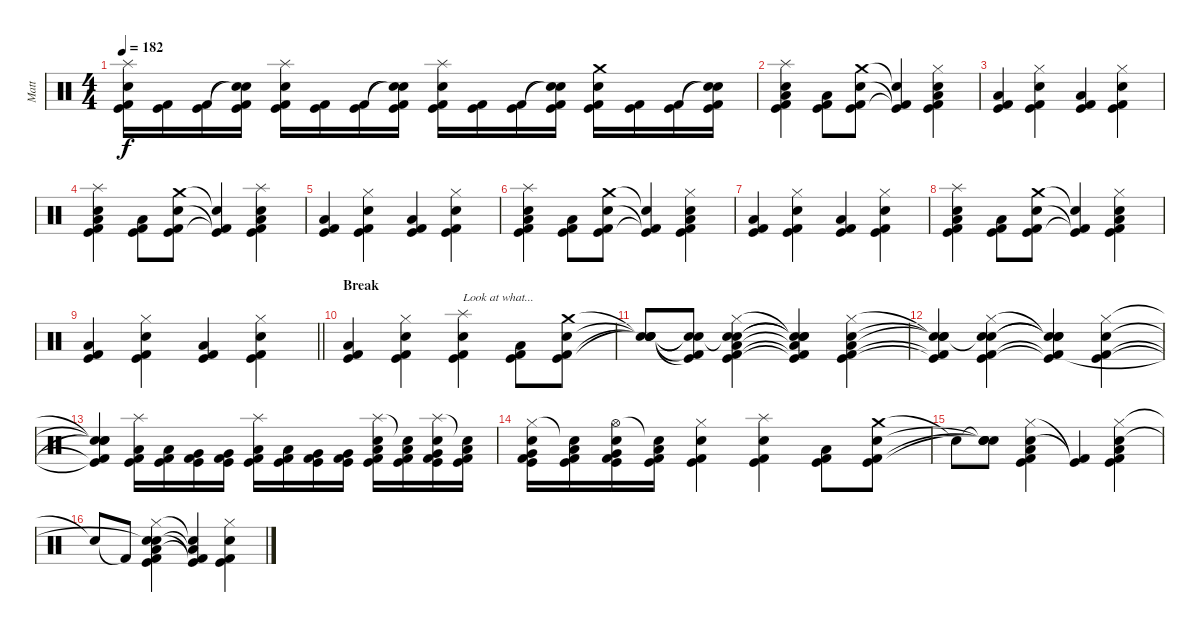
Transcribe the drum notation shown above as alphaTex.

\track ("Matt" "Matt") {instrument percussion}
\staff {score}
\articulation defaults
\ts (4 4)
\tempo 182
\clef neutral
\ks c
("Splash (hit)" "Electric Snare (hit)" "Kick (hit)" "Kick (hit) 2").16{dy f} ("Kick (hit)" "Kick (hit) 2").16 ("Kick (hit)" "Kick (hit) 2").16 ("Snare (hit)"{t} "Snare (hit)"{t} "Kick (hit)" "Kick (hit) 2").16 ("Splash (hit)" "Electric Snare (hit)" "Kick (hit)" "Kick (hit) 2").16 ("Kick (hit)" "Kick (hit) 2").16 ("Kick (hit)" "Kick (hit) 2").16 ("Snare (hit)"{t} "Snare (hit)"{t} "Kick (hit)" "Kick (hit) 2").16 ("Splash (hit)" "Electric Snare (hit)" "Kick (hit)" "Kick (hit) 2").16 ("Kick (hit)" "Kick (hit) 2").16 ("Kick (hit)" "Kick (hit) 2").16 ("Snare (hit)"{t} "Snare (hit)"{t} "Kick (hit)" "Kick (hit) 2").16 ("Crash medium (hit)" "Electric Snare (hit)" "Kick (hit)" "Kick (hit) 2").16 ("Kick (hit)" "Kick (hit) 2").16 ("Kick (hit)" "Kick (hit) 2").16 ("Snare (hit)"{t} "Snare (hit)"{t} "Kick (hit)" "Kick (hit) 2").16 |
("Splash (hit)" "Electric Snare (hit)" "Low Floor Tom (hit)" "Kick (hit)" "Kick (hit) 2").4 ("Low Floor Tom (hit)" "Kick (hit)" "Kick (hit) 2").8 ("Crash medium (hit)" "Electric Snare (hit)" "Kick (hit)" "Kick (hit) 2").8 ("Electric Snare (hit)"{t} "Kick (hit)"{t} "Kick (hit) 2"{t}).4 ("Hi-Hat (closed)" "Electric Snare (hit)" "Low Floor Tom (hit)" "Kick (hit)" "Kick (hit) 2").4 |
("Low Floor Tom (hit)" "Kick (hit)" "Kick (hit) 2").4 ("Hi-Hat (closed)" "Electric Snare (hit)" "Kick (hit)" "Kick (hit) 2").4 ("Low Floor Tom (hit)" "Kick (hit)" "Kick (hit) 2").4 ("Hi-Hat (closed)" "Electric Snare (hit)" "Kick (hit)" "Kick (hit) 2").4 |
("Splash (hit)" "Electric Snare (hit)" "Low Floor Tom (hit)" "Kick (hit)" "Kick (hit) 2").4 ("Low Floor Tom (hit)" "Kick (hit)" "Kick (hit) 2").8 ("Crash medium (hit)" "Electric Snare (hit)" "Kick (hit)" "Kick (hit) 2").8 ("Electric Snare (hit)"{t} "Kick (hit)"{t} "Kick (hit) 2"{t}).4 ("Splash (hit)" "Electric Snare (hit)" "Low Floor Tom (hit)" "Kick (hit)" "Kick (hit) 2").4 |
("Low Floor Tom (hit)" "Kick (hit)" "Kick (hit) 2").4 ("Hi-Hat (closed)" "Electric Snare (hit)" "Kick (hit)" "Kick (hit) 2").4 ("Low Floor Tom (hit)" "Kick (hit)" "Kick (hit) 2").4 ("Hi-Hat (closed)" "Electric Snare (hit)" "Kick (hit)" "Kick (hit) 2").4 |
("Splash (hit)" "Electric Snare (hit)" "Low Floor Tom (hit)" "Kick (hit)" "Kick (hit) 2").4 ("Low Floor Tom (hit)" "Kick (hit)" "Kick (hit) 2").8 ("Crash medium (hit)" "Electric Snare (hit)" "Kick (hit)" "Kick (hit) 2").8 ("Electric Snare (hit)"{t} "Kick (hit)"{t} "Kick (hit) 2"{t}).4 ("Hi-Hat (closed)" "Electric Snare (hit)" "Low Floor Tom (hit)" "Kick (hit)" "Kick (hit) 2").4 |
("Low Floor Tom (hit)" "Kick (hit)" "Kick (hit) 2").4 ("Hi-Hat (closed)" "Electric Snare (hit)" "Kick (hit)" "Kick (hit) 2").4 ("Low Floor Tom (hit)" "Kick (hit)" "Kick (hit) 2").4 ("Hi-Hat (closed)" "Electric Snare (hit)" "Kick (hit)" "Kick (hit) 2").4 |
("Splash (hit)" "Electric Snare (hit)" "Low Floor Tom (hit)" "Kick (hit)" "Kick (hit) 2").4 ("Low Floor Tom (hit)" "Kick (hit)" "Kick (hit) 2").8 ("Crash medium (hit)" "Electric Snare (hit)" "Kick (hit)" "Kick (hit) 2").8 ("Electric Snare (hit)"{t} "Kick (hit)"{t} "Kick (hit) 2"{t}).4 ("Hi-Hat (closed)" "Electric Snare (hit)" "Low Floor Tom (hit)" "Kick (hit)" "Kick (hit) 2").4 |
\barLineRight lightlight
("Low Floor Tom (hit)" "Kick (hit)" "Kick (hit) 2").4 ("Hi-Hat (closed)" "Electric Snare (hit)" "Kick (hit)" "Kick (hit) 2").4 ("Low Floor Tom (hit)" "Kick (hit)" "Kick (hit) 2").4 ("Hi-Hat (closed)" "Electric Snare (hit)" "Kick (hit)" "Kick (hit) 2").4 |
\section ("" "Break")
("Low Floor Tom (hit)" "Kick (hit)" "Kick (hit) 2").4 ("Hi-Hat (closed)" "Electric Snare (hit)" "Kick (hit)" "Kick (hit) 2").4 ("Splash (hit)" "Electric Snare (hit)" "Kick (hit)" "Kick (hit) 2").4{txt "Look at what..."} ("Low Floor Tom (hit)" "Kick (hit)" "Kick (hit) 2").8 ("Crash medium (hit)" "Electric Snare (hit)" "Kick (hit)" "Kick (hit) 2").8 |
("Snare (hit)"{t} "Snare (hit)"{t} "Snare (hit)"{t} "Snare (hit)"{t}).8 ("Snare (hit)"{t} "Snare (hit)"{t} "Kick (hit)"{t} "Kick (hit) 2"{t}).8 ("Hi-Hat (closed)" "Snare (hit)"{t} "Electric Snare (hit)" "Low Floor Tom (hit)" "Kick (hit)" "Kick (hit) 2").4 ("Snare (hit)"{t} "Snare (hit)"{t} "Snare (hit)"{t} "Low Floor Tom (hit)"{t} "Kick (hit)"{t} "Kick (hit) 2"{t}).4 ("Hi-Hat (closed)" "Electric Snare (hit)" "Low Floor Tom (hit)" "Kick (hit)" "Kick (hit) 2").4 |
("Snare (hit)"{t} "Snare (hit)"{t} "Snare (hit)"{t} "Kick (hit)"{t} "Kick (hit) 2"{t}).4 ("Hi-Hat (closed)" "Snare (hit)"{t} "Electric Snare (hit)" "Kick (hit)" "Kick (hit) 2").4 ("Snare (hit)"{t} "Snare (hit)"{t} "Snare (hit)"{t} "Kick (hit)"{t} "Kick (hit) 2"{t}).4 ("Hi-Hat (closed)" "Electric Snare (hit)" "Kick (hit)" "Kick (hit) 2").4 |
("Snare (hit)"{t} "Snare (hit)"{t} "Snare (hit)"{t} "Kick (hit)"{t} "Kick (hit) 2"{t}).4 ("Splash (hit)" "Low Floor Tom (hit)" "Kick (hit)" "Kick (hit) 2").16 ("Low Floor Tom (hit)" "Kick (hit)" "Kick (hit) 2").16 ("Very Low Tom (hit)" "Kick (hit)" "Kick (hit) 2").16 ("Very Low Tom (hit)" "Kick (hit)" "Kick (hit) 2").16 ("Splash (hit)" "Low Tom (hit)" "Kick (hit)" "Kick (hit) 2").16 ("Low Tom (hit)" "Kick (hit)" "Kick (hit) 2").16 ("Very Low Tom (hit)" "Kick (hit)" "Kick (hit) 2").16 ("Very Low Tom (hit)" "Kick (hit)" "Kick (hit) 2").16 ("Splash (hit)" "Electric Snare (hit)" "Low Floor Tom (hit)" "Kick (hit)" "Kick (hit) 2").16 ("Snare (hit)"{t} "Low Floor Tom (hit)" "Kick (hit)" "Kick (hit) 2").16 ("Splash (hit)" "Electric Snare (hit)" "Very Low Tom (hit)" "Kick (hit)" "Kick (hit) 2").16 ("Snare (hit)"{t} "Low Floor Tom (hit)" "Kick (hit)" "Kick (hit) 2").16 |
("Hi-Hat (closed)" "Electric Snare (hit)" "Very Low Tom (hit)" "Kick (hit)" "Kick (hit) 2").16 ("Snare (hit)"{t} "Low Floor Tom (hit)" "Kick (hit)" "Kick (hit) 2").16 ("Hi-Hat (open)" "Electric Snare (hit)" "Very Low Tom (hit)" "Kick (hit)" "Kick (hit) 2").16 ("Snare (hit)"{t} "Low Floor Tom (hit)" "Kick (hit)" "Kick (hit) 2").16 ("Hi-Hat (closed)" "Electric Snare (hit)" "Kick (hit)" "Kick (hit) 2").4 ("Splash (hit)" "Electric Snare (hit)" "Kick (hit)" "Kick (hit) 2").4 ("Low Floor Tom (hit)" "Kick (hit)" "Kick (hit) 2").8 ("Crash medium (hit)" "Electric Snare (hit)" "Kick (hit)" "Kick (hit) 2").8 |
"Snare (hit)"{t}.8 ("Snare (hit)"{t} "Snare (hit)"{t} "Snare (hit)"{t} "Snare (hit)"{t}).8 ("Hi-Hat (closed)" "Electric Snare (hit)" "Low Floor Tom (hit)" "Kick (hit)" "Kick (hit) 2").4 ("Kick (hit)"{t} "Kick (hit) 2"{t}).4 ("Hi-Hat (closed)" "Electric Snare (hit)" "Low Floor Tom (hit)" "Kick (hit)" "Kick (hit) 2").4 |
"Snare (hit)"{t}.8 "Kick (hit) 2"{t}.8 ("Hi-Hat (closed)" "Snare (hit)"{t} "Electric Snare (hit)" "Low Floor Tom (hit)" "Kick (hit)" "Kick (hit) 2").4 ("Snare (hit)"{t} "Low Floor Tom (hit)"{t} "Kick (hit)"{t} "Kick (hit) 2"{t}).4 ("Hi-Hat (closed)" "Electric Snare (hit)" "Kick (hit)" "Kick (hit) 2").4
